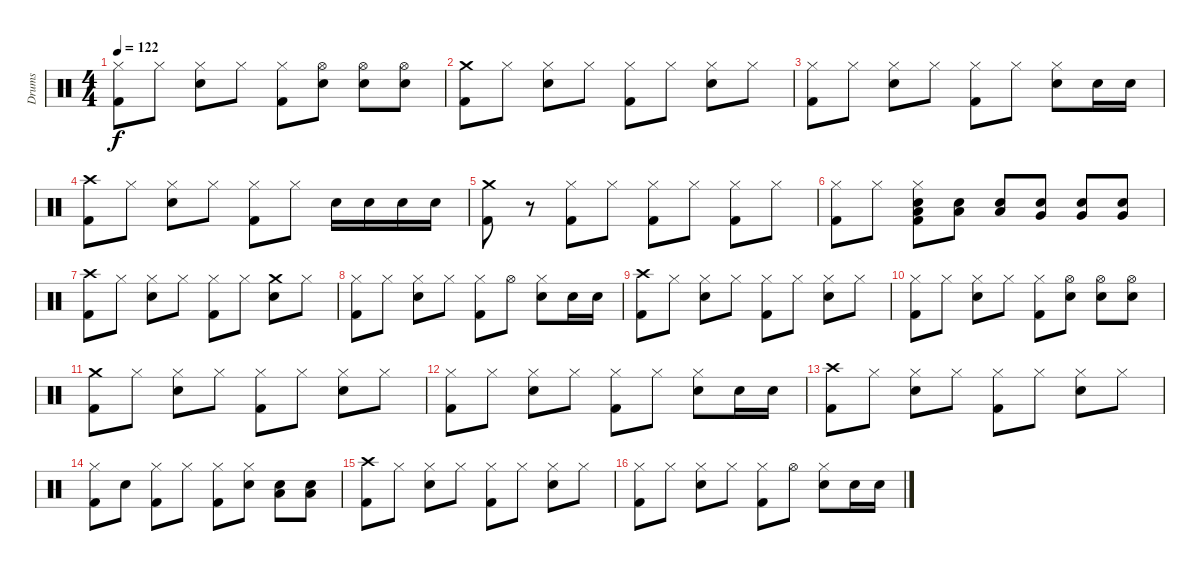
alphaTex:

\track ("Drums" "Drums") {instrument percussion}
\staff {score}
\articulation defaults
\ts (4 4)
\tempo 122
\clef neutral
\ks c
("Hi-Hat (closed)" "Kick (hit) 2").8{dy f} "Hi-Hat (closed)".8 ("Hi-Hat (closed)" "Electric Snare (hit)").8 "Hi-Hat (closed)".8 ("Hi-Hat (closed)" "Kick (hit) 2").8 ("Hi-Hat (open)" "Electric Snare (hit)").8 ("Hi-Hat (open)" "Electric Snare (hit)").8 ("Hi-Hat (open)" "Electric Snare (hit)").8 |
("Crash medium (hit)" "Kick (hit) 2").8 "Hi-Hat (closed)".8 ("Hi-Hat (closed)" "Electric Snare (hit)").8 "Hi-Hat (closed)".8 ("Hi-Hat (closed)" "Kick (hit) 2").8 "Hi-Hat (closed)".8 ("Hi-Hat (closed)" "Electric Snare (hit)").8 "Hi-Hat (closed)".8 |
("Hi-Hat (closed)" "Kick (hit) 2").8 "Hi-Hat (closed)".8 ("Hi-Hat (closed)" "Electric Snare (hit)").8 "Hi-Hat (closed)".8 ("Hi-Hat (closed)" "Kick (hit) 2").8 "Hi-Hat (closed)".8 ("Hi-Hat (closed)" "Electric Snare (hit)").8 "Electric Snare (hit)".16 "Electric Snare (hit)".16 |
("Crash high (hit)" "Kick (hit) 2").8 "Hi-Hat (closed)".8 ("Hi-Hat (closed)" "Electric Snare (hit)").8 "Hi-Hat (closed)".8 ("Hi-Hat (closed)" "Kick (hit) 2").8 "Hi-Hat (closed)".8 "Electric Snare (hit)".16 "Electric Snare (hit)".16 "Electric Snare (hit)".16 "Electric Snare (hit)".16 |
("Crash medium (hit)" "Kick (hit) 2").8 r.8 ("Hi-Hat (closed)" "Kick (hit) 2").8 "Hi-Hat (closed)".8 ("Hi-Hat (closed)" "Kick (hit) 2").8 "Hi-Hat (closed)".8 ("Hi-Hat (closed)" "Kick (hit) 2").8 "Hi-Hat (closed)".8 |
("Hi-Hat (closed)" "Kick (hit) 2").8 "Hi-Hat (closed)".8 ("Hi-Hat (closed)" "Electric Snare (hit)" "Low Tom (hit)" "Kick (hit) 2").8 ("Electric Snare (hit)" "Low Tom (hit)").8 ("Electric Snare (hit)" "Low Tom (hit)").8 ("Electric Snare (hit)" "Very Low Tom (hit)").8 ("Electric Snare (hit)" "Very Low Tom (hit)").8 ("Electric Snare (hit)" "Very Low Tom (hit)").8 |
("Crash high (hit)" "Kick (hit) 2").8 "Hi-Hat (closed)".8 ("Hi-Hat (closed)" "Electric Snare (hit)").8 "Hi-Hat (closed)".8 ("Hi-Hat (closed)" "Kick (hit) 2").8 "Hi-Hat (closed)".8 ("Crash medium (hit)" "Electric Snare (hit)").8 "Hi-Hat (closed)".8 |
("Hi-Hat (closed)" "Kick (hit) 2").8 "Hi-Hat (closed)".8 ("Hi-Hat (closed)" "Electric Snare (hit)").8 "Hi-Hat (closed)".8 ("Hi-Hat (closed)" "Kick (hit) 2").8 "Hi-Hat (open)".8 ("Hi-Hat (closed)" "Electric Snare (hit)").8 "Electric Snare (hit)".16 "Electric Snare (hit)".16 |
("Crash high (hit)" "Kick (hit) 2").8 "Hi-Hat (closed)".8 ("Hi-Hat (closed)" "Electric Snare (hit)").8 "Hi-Hat (closed)".8 ("Hi-Hat (closed)" "Kick (hit) 2").8 "Hi-Hat (closed)".8 ("Hi-Hat (closed)" "Electric Snare (hit)").8 "Hi-Hat (closed)".8 |
("Hi-Hat (closed)" "Kick (hit) 2").8 "Hi-Hat (closed)".8 ("Hi-Hat (closed)" "Electric Snare (hit)").8 "Hi-Hat (closed)".8 ("Hi-Hat (closed)" "Kick (hit) 2").8 ("Hi-Hat (open)" "Electric Snare (hit)").8 ("Hi-Hat (open)" "Electric Snare (hit)").8 ("Hi-Hat (open)" "Electric Snare (hit)").8 |
("Crash medium (hit)" "Kick (hit) 2").8 "Hi-Hat (closed)".8 ("Hi-Hat (closed)" "Electric Snare (hit)").8 "Hi-Hat (closed)".8 ("Hi-Hat (closed)" "Kick (hit) 2").8 "Hi-Hat (closed)".8 ("Hi-Hat (closed)" "Electric Snare (hit)").8 "Hi-Hat (closed)".8 |
("Hi-Hat (closed)" "Kick (hit) 2").8 "Hi-Hat (closed)".8 ("Hi-Hat (closed)" "Electric Snare (hit)").8 "Hi-Hat (closed)".8 ("Hi-Hat (closed)" "Kick (hit) 2").8 "Hi-Hat (closed)".8 ("Hi-Hat (closed)" "Electric Snare (hit)").8 "Electric Snare (hit)".16 "Electric Snare (hit)".16 |
("Crash high (hit)" "Kick (hit) 2").8 "Hi-Hat (closed)".8 ("Hi-Hat (closed)" "Electric Snare (hit)").8 "Hi-Hat (closed)".8 ("Hi-Hat (closed)" "Kick (hit) 2").8 "Hi-Hat (closed)".8 ("Hi-Hat (closed)" "Electric Snare (hit)").8 "Hi-Hat (closed)".8 |
("Hi-Hat (closed)" "Kick (hit) 2").8 "Electric Snare (hit)".8 ("Hi-Hat (closed)" "Kick (hit) 2").8 "Hi-Hat (closed)".8 ("Hi-Hat (closed)" "Kick (hit) 2").8 ("Hi-Hat (closed)" "Electric Snare (hit)").8 ("Electric Snare (hit)" "Low Tom (hit)").8 ("Electric Snare (hit)" "Low Tom (hit)").8 |
("Crash high (hit)" "Kick (hit) 2").8 "Hi-Hat (closed)".8 ("Hi-Hat (closed)" "Electric Snare (hit)").8 "Hi-Hat (closed)".8 ("Hi-Hat (closed)" "Kick (hit) 2").8 "Hi-Hat (closed)".8 ("Hi-Hat (closed)" "Electric Snare (hit)").8 "Hi-Hat (closed)".8 |
("Hi-Hat (closed)" "Kick (hit) 2").8 "Hi-Hat (closed)".8 ("Hi-Hat (closed)" "Electric Snare (hit)").8 "Hi-Hat (closed)".8 ("Hi-Hat (closed)" "Kick (hit) 2").8 "Hi-Hat (open)".8 ("Hi-Hat (closed)" "Electric Snare (hit)").8 "Electric Snare (hit)".16 "Electric Snare (hit)".16
